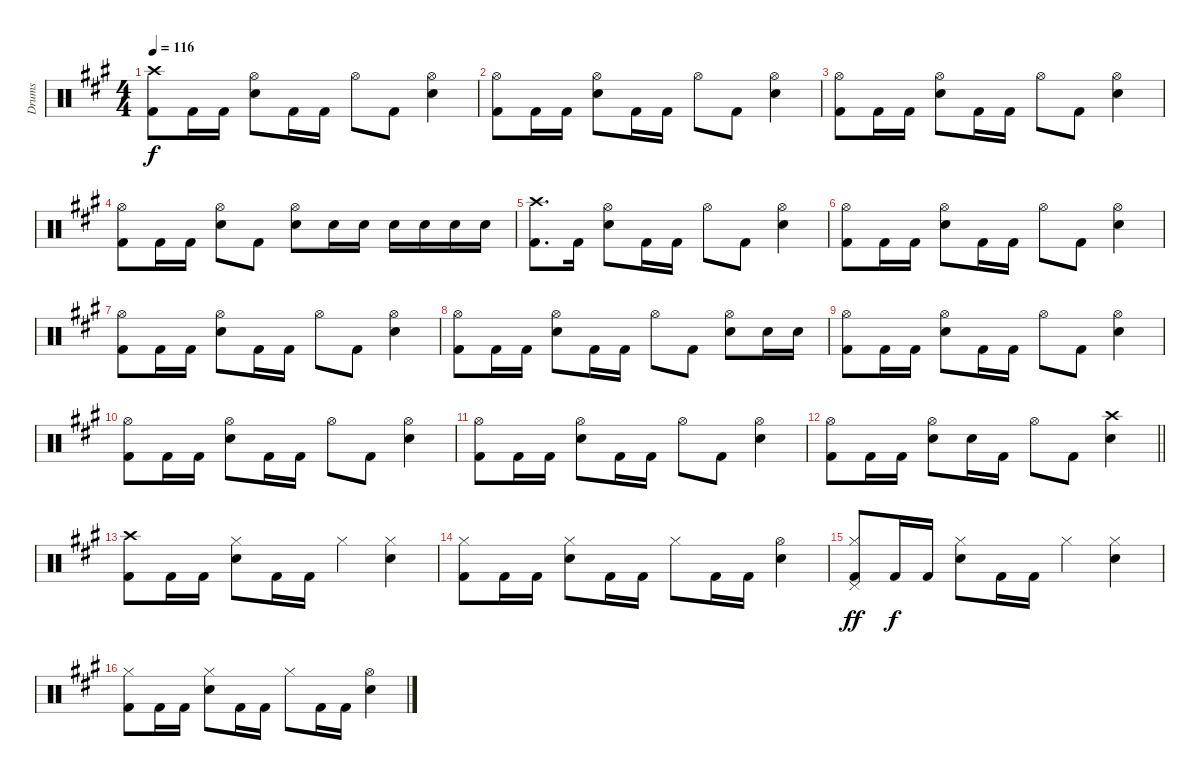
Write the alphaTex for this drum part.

\track ("Drums" "Drums") {instrument percussion}
\staff {score}
\articulation defaults
\ts (4 4)
\tempo 116
\clef neutral
\ks a
("Crash high (hit)" "Kick (hit) 2").8{dy f} "Kick (hit) 2".16 "Kick (hit) 2".16 ("Hi-Hat (open)" "Snare (hit) 2").8 "Kick (hit) 2".16 "Kick (hit) 2".16 "Hi-Hat (open)".8 "Kick (hit) 2".8 ("Hi-Hat (open)" "Snare (hit) 2").4 |
("Hi-Hat (open)" "Kick (hit) 2").8 "Kick (hit) 2".16 "Kick (hit) 2".16 ("Hi-Hat (open)" "Snare (hit) 2").8 "Kick (hit) 2".16 "Kick (hit) 2".16 "Hi-Hat (open)".8 "Kick (hit) 2".8 ("Hi-Hat (open)" "Snare (hit) 2").4 |
("Hi-Hat (open)" "Kick (hit) 2").8 "Kick (hit) 2".16 "Kick (hit) 2".16 ("Hi-Hat (open)" "Snare (hit) 2").8 "Kick (hit) 2".16 "Kick (hit) 2".16 "Hi-Hat (open)".8 "Kick (hit) 2".8 ("Hi-Hat (open)" "Snare (hit) 2").4 |
("Hi-Hat (open)" "Kick (hit) 2").8 "Kick (hit) 2".16 "Kick (hit) 2".16 ("Hi-Hat (open)" "Snare (hit) 2").8 "Kick (hit) 2".8 ("Hi-Hat (open)" "Snare (hit) 2").8 "Snare (hit) 2".16 "Snare (hit) 2".16 "Snare (hit) 2".16 "Snare (hit) 2".16 "Snare (hit) 2".16 "Snare (hit) 2".16 |
("Crash high (hit)" "Kick (hit) 2").8{d} "Kick (hit) 2".16 ("Hi-Hat (open)" "Snare (hit) 2").8 "Kick (hit) 2".16 "Kick (hit) 2".16 "Hi-Hat (open)".8 "Kick (hit) 2".8 ("Hi-Hat (open)" "Snare (hit) 2").4 |
("Hi-Hat (open)" "Kick (hit) 2").8 "Kick (hit) 2".16 "Kick (hit) 2".16 ("Hi-Hat (open)" "Snare (hit) 2").8 "Kick (hit) 2".16 "Kick (hit) 2".16 "Hi-Hat (open)".8 "Kick (hit) 2".8 ("Hi-Hat (open)" "Snare (hit) 2").4 |
("Hi-Hat (open)" "Kick (hit) 2").8 "Kick (hit) 2".16 "Kick (hit) 2".16 ("Hi-Hat (open)" "Snare (hit) 2").8 "Kick (hit) 2".16 "Kick (hit) 2".16 "Hi-Hat (open)".8 "Kick (hit) 2".8 ("Hi-Hat (open)" "Snare (hit) 2").4 |
("Hi-Hat (open)" "Kick (hit) 2").8 "Kick (hit) 2".16 "Kick (hit) 2".16 ("Hi-Hat (open)" "Snare (hit) 2").8 "Kick (hit) 2".16 "Kick (hit) 2".16 "Hi-Hat (open)".8 "Kick (hit) 2".8 ("Hi-Hat (open)" "Snare (hit) 2").8 "Snare (hit) 2".16 "Snare (hit) 2".16 |
("Hi-Hat (open)" "Kick (hit) 2").8 "Kick (hit) 2".16 "Kick (hit) 2".16 ("Hi-Hat (open)" "Snare (hit) 2").8 "Kick (hit) 2".16 "Kick (hit) 2".16 "Hi-Hat (open)".8 "Kick (hit) 2".8 ("Hi-Hat (open)" "Snare (hit) 2").4 |
("Hi-Hat (open)" "Kick (hit) 2").8 "Kick (hit) 2".16 "Kick (hit) 2".16 ("Hi-Hat (open)" "Snare (hit) 2").8 "Kick (hit) 2".16 "Kick (hit) 2".16 "Hi-Hat (open)".8 "Kick (hit) 2".8 ("Hi-Hat (open)" "Snare (hit) 2").4 |
("Hi-Hat (open)" "Kick (hit) 2").8 "Kick (hit) 2".16 "Kick (hit) 2".16 ("Hi-Hat (open)" "Snare (hit) 2").8 "Kick (hit) 2".16 "Kick (hit) 2".16 "Hi-Hat (open)".8 "Kick (hit) 2".8 ("Hi-Hat (open)" "Snare (hit) 2").4 |
\barLineRight lightlight
("Hi-Hat (open)" "Kick (hit) 2").8 "Kick (hit) 2".16 "Kick (hit) 2".16 ("Hi-Hat (open)" "Snare (hit) 2").8 "Snare (hit) 2".16 "Kick (hit) 2".16 "Hi-Hat (open)".8 "Kick (hit) 2".8 ("Snare (hit) 2" "Crash high (hit)").4 |
("Crash high (hit)" "Kick (hit) 2").8 "Kick (hit) 2".16 "Kick (hit) 2".16 ("Hi-Hat (closed)" "Snare (hit) 2").8 "Kick (hit) 2".16 "Kick (hit) 2".16 "Hi-Hat (closed)".4 ("Hi-Hat (closed)" "Snare (hit) 2").4 |
("Hi-Hat (closed)" "Kick (hit) 2").8 "Kick (hit) 2".16 "Kick (hit) 2".16 ("Hi-Hat (closed)" "Snare (hit) 2").8 "Kick (hit) 2".16 "Kick (hit) 2".16 "Hi-Hat (closed)".8 "Kick (hit) 2".16 "Kick (hit) 2".16 ("Hi-Hat (open)" "Snare (hit) 2").4 |
("Hi-Hat (closed)" "Kick (hit) 2" "Pedal Hi-Hat (hit)").8{dy ff} "Kick (hit) 2".16{dy f} "Kick (hit) 2".16 ("Hi-Hat (closed)" "Snare (hit) 2").8 "Kick (hit) 2".16 "Kick (hit) 2".16 "Hi-Hat (closed)".4 ("Hi-Hat (closed)" "Snare (hit) 2").4 |
("Hi-Hat (closed)" "Kick (hit) 2").8 "Kick (hit) 2".16 "Kick (hit) 2".16 ("Hi-Hat (closed)" "Snare (hit) 2").8 "Kick (hit) 2".16 "Kick (hit) 2".16 "Hi-Hat (closed)".8 "Kick (hit) 2".16 "Kick (hit) 2".16 ("Hi-Hat (open)" "Snare (hit) 2").4
